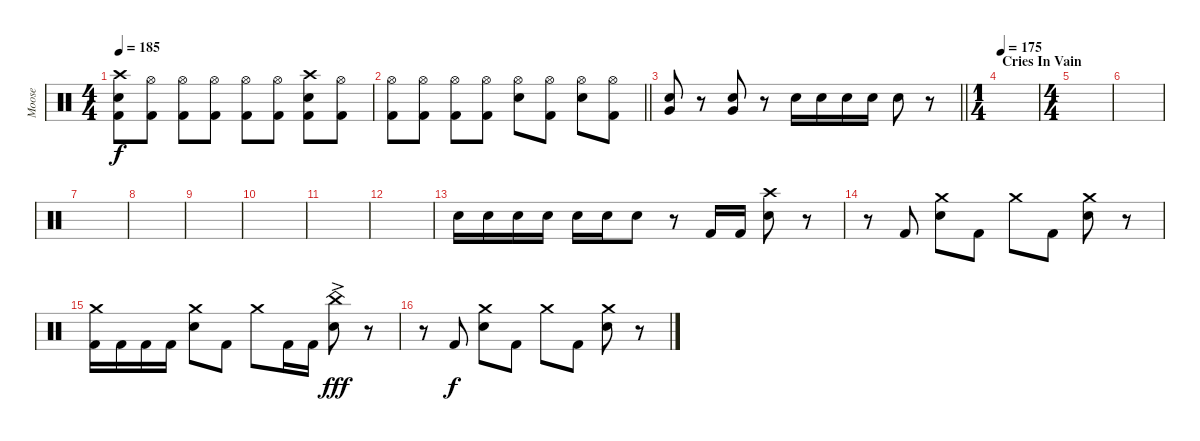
\track ("Moose" "Moose") {instrument percussion}
\staff {score}
\articulation defaults
\ts (4 4)
\tempo 185
\clef neutral
\ks c
("Crash high (hit)" "Electric Snare (hit)" "Kick (hit) 2").8{dy f} ("Hi-Hat (open)" "Kick (hit) 2").8 ("Hi-Hat (open)" "Kick (hit) 2").8 ("Hi-Hat (open)" "Kick (hit) 2").8 ("Hi-Hat (open)" "Kick (hit) 2").8 ("Hi-Hat (open)" "Kick (hit) 2").8 ("Crash high (hit)" "Electric Snare (hit)" "Kick (hit) 2").8 ("Hi-Hat (open)" "Kick (hit) 2").8 |
\barLineRight lightlight
("Hi-Hat (open)" "Kick (hit) 2").8 ("Hi-Hat (open)" "Kick (hit) 2").8 ("Hi-Hat (open)" "Kick (hit) 2").8 ("Hi-Hat (open)" "Kick (hit) 2").8 ("Hi-Hat (open)" "Electric Snare (hit)").8 ("Hi-Hat (open)" "Kick (hit) 2").8 ("Hi-Hat (open)" "Electric Snare (hit)").8 ("Hi-Hat (open)" "Kick (hit) 2").8 |
\barLineRight lightlight
("Electric Snare (hit)" "Very Low Tom (hit)").8 r.8 ("Electric Snare (hit)" "Very Low Tom (hit)").8 r.8 "Electric Snare (hit)".16 "Electric Snare (hit)".16 "Electric Snare (hit)".16 "Electric Snare (hit)".16 "Electric Snare (hit)".8 r.8 |
\ts (1 4)
\section ("" "Cries In Vain")
\tempo 175
|
\ts (4 4)
|
|
|
|
|
|
|
|
"Electric Snare (hit)".16 "Electric Snare (hit)".16 "Electric Snare (hit)".16 "Electric Snare (hit)".16 "Electric Snare (hit)".16 "Electric Snare (hit)".16 "Electric Snare (hit)".8 r.8 "Kick (hit) 2".16 "Kick (hit) 2".16 ("Crash high (hit)" "Electric Snare (hit)").8 r.8 |
r.8 "Kick (hit) 2".8 ("Crash medium (hit)" "Electric Snare (hit)").8 "Kick (hit) 2".8 "Crash medium (hit)".8 "Kick (hit) 2".8 ("Crash medium (hit)" "Electric Snare (hit)").8 r.8 |
("Crash medium (hit)" "Kick (hit) 2").16 "Kick (hit) 2".16 "Kick (hit) 2".16 "Kick (hit) 2".16 ("Crash medium (hit)" "Electric Snare (hit)").8 "Kick (hit) 2".8 "Crash medium (hit)".8 "Kick (hit) 2".16 "Kick (hit) 2".16 ("China (hit)"{ac} "Electric Snare (hit)").8{dy fff} r.8 |
r.8 "Kick (hit) 2".8{dy f} ("Crash medium (hit)" "Electric Snare (hit)").8 "Kick (hit) 2".8 "Crash medium (hit)".8 "Kick (hit) 2".8 ("Crash medium (hit)" "Electric Snare (hit)").8 r.8
